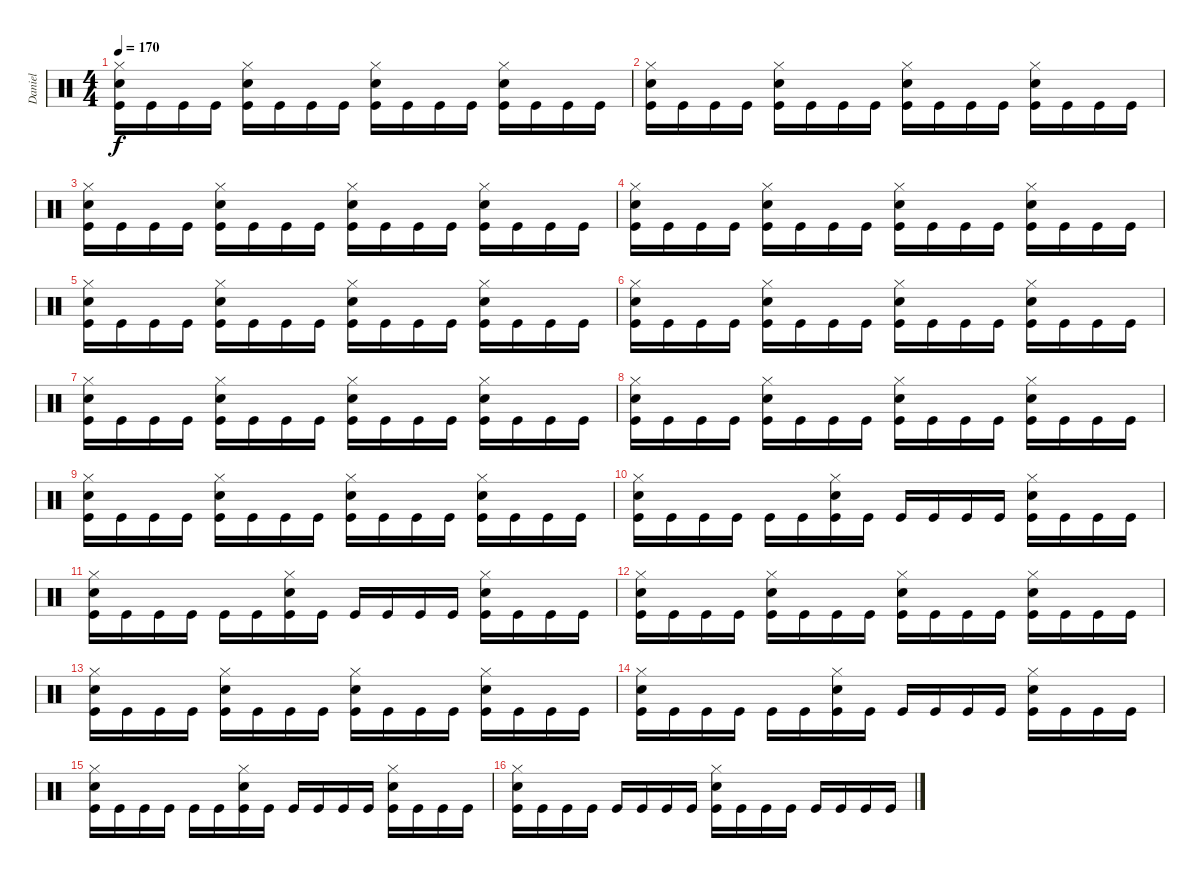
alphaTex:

\track ("Daniel" "Daniel") {instrument percussion}
\staff {score}
\articulation defaults
\ts (4 4)
\tempo 170
\clef neutral
\ks c
("Kick (hit)" "Snare (hit) 2" "Hi-Hat (closed)").16{dy f} "Kick (hit)".16 "Kick (hit)".16 "Kick (hit)".16 ("Kick (hit)" "Snare (hit) 2" "Hi-Hat (closed)").16 "Kick (hit)".16 "Kick (hit)".16 "Kick (hit)".16 ("Kick (hit)" "Snare (hit) 2" "Hi-Hat (closed)").16 "Kick (hit)".16 "Kick (hit)".16 "Kick (hit)".16 ("Kick (hit)" "Snare (hit) 2" "Hi-Hat (closed)").16 "Kick (hit)".16 "Kick (hit)".16 "Kick (hit)".16 |
("Kick (hit)" "Snare (hit) 2" "Hi-Hat (closed)").16 "Kick (hit)".16 "Kick (hit)".16 "Kick (hit)".16 ("Kick (hit)" "Snare (hit) 2" "Hi-Hat (closed)").16 "Kick (hit)".16 "Kick (hit)".16 "Kick (hit)".16 ("Kick (hit)" "Snare (hit) 2" "Hi-Hat (closed)").16 "Kick (hit)".16 "Kick (hit)".16 "Kick (hit)".16 ("Kick (hit)" "Snare (hit) 2" "Hi-Hat (closed)").16 "Kick (hit)".16 "Kick (hit)".16 "Kick (hit)".16 |
("Kick (hit)" "Snare (hit) 2" "Hi-Hat (closed)").16 "Kick (hit)".16 "Kick (hit)".16 "Kick (hit)".16 ("Kick (hit)" "Snare (hit) 2" "Hi-Hat (closed)").16 "Kick (hit)".16 "Kick (hit)".16 "Kick (hit)".16 ("Kick (hit)" "Snare (hit) 2" "Hi-Hat (closed)").16 "Kick (hit)".16 "Kick (hit)".16 "Kick (hit)".16 ("Kick (hit)" "Snare (hit) 2" "Hi-Hat (closed)").16 "Kick (hit)".16 "Kick (hit)".16 "Kick (hit)".16 |
("Kick (hit)" "Snare (hit) 2" "Hi-Hat (closed)").16 "Kick (hit)".16 "Kick (hit)".16 "Kick (hit)".16 ("Kick (hit)" "Snare (hit) 2" "Hi-Hat (closed)").16 "Kick (hit)".16 "Kick (hit)".16 "Kick (hit)".16 ("Kick (hit)" "Snare (hit) 2" "Hi-Hat (closed)").16 "Kick (hit)".16 "Kick (hit)".16 "Kick (hit)".16 ("Kick (hit)" "Snare (hit) 2" "Hi-Hat (closed)").16 "Kick (hit)".16 "Kick (hit)".16 "Kick (hit)".16 |
("Kick (hit)" "Snare (hit) 2" "Hi-Hat (closed)").16 "Kick (hit)".16 "Kick (hit)".16 "Kick (hit)".16 ("Kick (hit)" "Snare (hit) 2" "Hi-Hat (closed)").16 "Kick (hit)".16 "Kick (hit)".16 "Kick (hit)".16 ("Kick (hit)" "Snare (hit) 2" "Hi-Hat (closed)").16 "Kick (hit)".16 "Kick (hit)".16 "Kick (hit)".16 ("Kick (hit)" "Snare (hit) 2" "Hi-Hat (closed)").16 "Kick (hit)".16 "Kick (hit)".16 "Kick (hit)".16 |
("Kick (hit)" "Snare (hit) 2" "Hi-Hat (closed)").16 "Kick (hit)".16 "Kick (hit)".16 "Kick (hit)".16 ("Kick (hit)" "Snare (hit) 2" "Hi-Hat (closed)").16 "Kick (hit)".16 "Kick (hit)".16 "Kick (hit)".16 ("Kick (hit)" "Snare (hit) 2" "Hi-Hat (closed)").16 "Kick (hit)".16 "Kick (hit)".16 "Kick (hit)".16 ("Kick (hit)" "Snare (hit) 2" "Hi-Hat (closed)").16 "Kick (hit)".16 "Kick (hit)".16 "Kick (hit)".16 |
("Kick (hit)" "Snare (hit) 2" "Hi-Hat (closed)").16 "Kick (hit)".16 "Kick (hit)".16 "Kick (hit)".16 ("Kick (hit)" "Snare (hit) 2" "Hi-Hat (closed)").16 "Kick (hit)".16 "Kick (hit)".16 "Kick (hit)".16 ("Kick (hit)" "Snare (hit) 2" "Hi-Hat (closed)").16 "Kick (hit)".16 "Kick (hit)".16 "Kick (hit)".16 ("Kick (hit)" "Snare (hit) 2" "Hi-Hat (closed)").16 "Kick (hit)".16 "Kick (hit)".16 "Kick (hit)".16 |
("Kick (hit)" "Snare (hit) 2" "Hi-Hat (closed)").16 "Kick (hit)".16 "Kick (hit)".16 "Kick (hit)".16 ("Kick (hit)" "Snare (hit) 2" "Hi-Hat (closed)").16 "Kick (hit)".16 "Kick (hit)".16 "Kick (hit)".16 ("Kick (hit)" "Snare (hit) 2" "Hi-Hat (closed)").16 "Kick (hit)".16 "Kick (hit)".16 "Kick (hit)".16 ("Kick (hit)" "Snare (hit) 2" "Hi-Hat (closed)").16 "Kick (hit)".16 "Kick (hit)".16 "Kick (hit)".16 |
("Kick (hit)" "Snare (hit) 2" "Hi-Hat (closed)").16 "Kick (hit)".16 "Kick (hit)".16 "Kick (hit)".16 ("Kick (hit)" "Snare (hit) 2" "Hi-Hat (closed)").16 "Kick (hit)".16 "Kick (hit)".16 "Kick (hit)".16 ("Kick (hit)" "Snare (hit) 2" "Hi-Hat (closed)").16 "Kick (hit)".16 "Kick (hit)".16 "Kick (hit)".16 ("Kick (hit)" "Snare (hit) 2" "Hi-Hat (closed)").16 "Kick (hit)".16 "Kick (hit)".16 "Kick (hit)".16 |
("Kick (hit)" "Snare (hit) 2" "Hi-Hat (closed)").16 "Kick (hit)".16 "Kick (hit)".16 "Kick (hit)".16 "Kick (hit)".16 "Kick (hit)".16 ("Kick (hit)" "Snare (hit) 2" "Hi-Hat (closed)").16 "Kick (hit)".16 "Kick (hit)".16 "Kick (hit)".16 "Kick (hit)".16 "Kick (hit)".16 ("Kick (hit)" "Snare (hit) 2" "Hi-Hat (closed)").16 "Kick (hit)".16 "Kick (hit)".16 "Kick (hit)".16 |
("Kick (hit)" "Snare (hit) 2" "Hi-Hat (closed)").16 "Kick (hit)".16 "Kick (hit)".16 "Kick (hit)".16 "Kick (hit)".16 "Kick (hit)".16 ("Kick (hit)" "Snare (hit) 2" "Hi-Hat (closed)").16 "Kick (hit)".16 "Kick (hit)".16 "Kick (hit)".16 "Kick (hit)".16 "Kick (hit)".16 ("Kick (hit)" "Snare (hit) 2" "Hi-Hat (closed)").16 "Kick (hit)".16 "Kick (hit)".16 "Kick (hit)".16 |
("Kick (hit)" "Snare (hit) 2" "Hi-Hat (closed)").16 "Kick (hit)".16 "Kick (hit)".16 "Kick (hit)".16 ("Kick (hit)" "Snare (hit) 2" "Hi-Hat (closed)").16 "Kick (hit)".16 "Kick (hit)".16 "Kick (hit)".16 ("Kick (hit)" "Snare (hit) 2" "Hi-Hat (closed)").16 "Kick (hit)".16 "Kick (hit)".16 "Kick (hit)".16 ("Kick (hit)" "Snare (hit) 2" "Hi-Hat (closed)").16 "Kick (hit)".16 "Kick (hit)".16 "Kick (hit)".16 |
("Kick (hit)" "Snare (hit) 2" "Hi-Hat (closed)").16 "Kick (hit)".16 "Kick (hit)".16 "Kick (hit)".16 ("Kick (hit)" "Snare (hit) 2" "Hi-Hat (closed)").16 "Kick (hit)".16 "Kick (hit)".16 "Kick (hit)".16 ("Kick (hit)" "Snare (hit) 2" "Hi-Hat (closed)").16 "Kick (hit)".16 "Kick (hit)".16 "Kick (hit)".16 ("Kick (hit)" "Snare (hit) 2" "Hi-Hat (closed)").16 "Kick (hit)".16 "Kick (hit)".16 "Kick (hit)".16 |
("Kick (hit)" "Snare (hit) 2" "Hi-Hat (closed)").16 "Kick (hit)".16 "Kick (hit)".16 "Kick (hit)".16 "Kick (hit)".16 "Kick (hit)".16 ("Kick (hit)" "Snare (hit) 2" "Hi-Hat (closed)").16 "Kick (hit)".16 "Kick (hit)".16 "Kick (hit)".16 "Kick (hit)".16 "Kick (hit)".16 ("Kick (hit)" "Snare (hit) 2" "Hi-Hat (closed)").16 "Kick (hit)".16 "Kick (hit)".16 "Kick (hit)".16 |
("Kick (hit)" "Snare (hit) 2" "Hi-Hat (closed)").16 "Kick (hit)".16 "Kick (hit)".16 "Kick (hit)".16 "Kick (hit)".16 "Kick (hit)".16 ("Kick (hit)" "Snare (hit) 2" "Hi-Hat (closed)").16 "Kick (hit)".16 "Kick (hit)".16 "Kick (hit)".16 "Kick (hit)".16 "Kick (hit)".16 ("Kick (hit)" "Snare (hit) 2" "Hi-Hat (closed)").16 "Kick (hit)".16 "Kick (hit)".16 "Kick (hit)".16 |
("Kick (hit)" "Snare (hit) 2" "Hi-Hat (closed)").16 "Kick (hit)".16 "Kick (hit)".16 "Kick (hit)".16 "Kick (hit)".16 "Kick (hit)".16 "Kick (hit)".16 "Kick (hit)".16 ("Kick (hit)" "Snare (hit) 2" "Hi-Hat (closed)").16 "Kick (hit)".16 "Kick (hit)".16 "Kick (hit)".16 "Kick (hit)".16 "Kick (hit)".16 "Kick (hit)".16 "Kick (hit)".16
